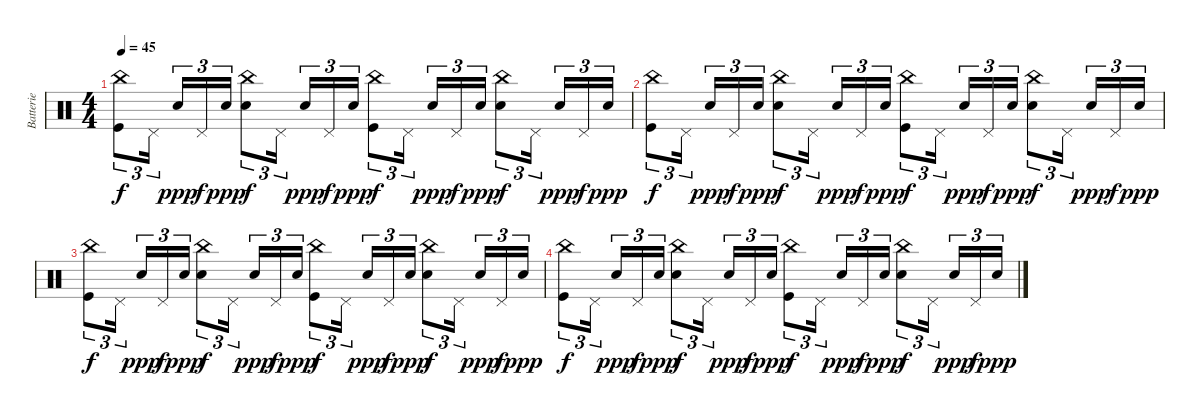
\track ("Batterie" "Batterie") {instrument percussion}
\staff {score}
\articulation defaults
\ts (4 4)
\tempo 45
\clef neutral
\ks c
("China (hit)" "Kick (hit)").8{tu (3 2) dy f} "Pedal Hi-Hat (hit)".16{tu (3 2)} "Electric Snare (hit)".16{tu (3 2) dy ppp} "Pedal Hi-Hat (hit)".16{tu (3 2) dy f} "Electric Snare (hit)".16{tu (3 2) dy ppp} ("China (hit)" "Electric Snare (hit)").8{tu (3 2) dy f} "Pedal Hi-Hat (hit)".16{tu (3 2)} "Electric Snare (hit)".16{tu (3 2) dy ppp} "Pedal Hi-Hat (hit)".16{tu (3 2) dy f} "Electric Snare (hit)".16{tu (3 2) dy ppp} ("China (hit)" "Kick (hit)").8{tu (3 2) dy f} "Pedal Hi-Hat (hit)".16{tu (3 2)} "Electric Snare (hit)".16{tu (3 2) dy ppp} "Pedal Hi-Hat (hit)".16{tu (3 2) dy f} "Electric Snare (hit)".16{tu (3 2) dy ppp} ("China (hit)" "Electric Snare (hit)").8{tu (3 2) dy f} "Pedal Hi-Hat (hit)".16{tu (3 2)} "Electric Snare (hit)".16{tu (3 2) dy ppp} "Pedal Hi-Hat (hit)".16{tu (3 2) dy f} "Electric Snare (hit)".16{tu (3 2) dy ppp} |
("China (hit)" "Kick (hit)").8{tu (3 2) dy f} "Pedal Hi-Hat (hit)".16{tu (3 2)} "Electric Snare (hit)".16{tu (3 2) dy ppp} "Pedal Hi-Hat (hit)".16{tu (3 2) dy f} "Electric Snare (hit)".16{tu (3 2) dy ppp} ("China (hit)" "Electric Snare (hit)").8{tu (3 2) dy f} "Pedal Hi-Hat (hit)".16{tu (3 2)} "Electric Snare (hit)".16{tu (3 2) dy ppp} "Pedal Hi-Hat (hit)".16{tu (3 2) dy f} "Electric Snare (hit)".16{tu (3 2) dy ppp} ("China (hit)" "Kick (hit)").8{tu (3 2) dy f} "Pedal Hi-Hat (hit)".16{tu (3 2)} "Electric Snare (hit)".16{tu (3 2) dy ppp} "Pedal Hi-Hat (hit)".16{tu (3 2) dy f} "Electric Snare (hit)".16{tu (3 2) dy ppp} ("China (hit)" "Electric Snare (hit)").8{tu (3 2) dy f} "Pedal Hi-Hat (hit)".16{tu (3 2)} "Electric Snare (hit)".16{tu (3 2) dy ppp} "Pedal Hi-Hat (hit)".16{tu (3 2) dy f} "Electric Snare (hit)".16{tu (3 2) dy ppp} |
("China (hit)" "Kick (hit)").8{tu (3 2) dy f} "Pedal Hi-Hat (hit)".16{tu (3 2)} "Electric Snare (hit)".16{tu (3 2) dy ppp} "Pedal Hi-Hat (hit)".16{tu (3 2) dy f} "Electric Snare (hit)".16{tu (3 2) dy ppp} ("China (hit)" "Electric Snare (hit)").8{tu (3 2) dy f} "Pedal Hi-Hat (hit)".16{tu (3 2)} "Electric Snare (hit)".16{tu (3 2) dy ppp} "Pedal Hi-Hat (hit)".16{tu (3 2) dy f} "Electric Snare (hit)".16{tu (3 2) dy ppp} ("China (hit)" "Kick (hit)").8{tu (3 2) dy f} "Pedal Hi-Hat (hit)".16{tu (3 2)} "Electric Snare (hit)".16{tu (3 2) dy ppp} "Pedal Hi-Hat (hit)".16{tu (3 2) dy f} "Electric Snare (hit)".16{tu (3 2) dy ppp} ("China (hit)" "Electric Snare (hit)").8{tu (3 2) dy f} "Pedal Hi-Hat (hit)".16{tu (3 2)} "Electric Snare (hit)".16{tu (3 2) dy ppp} "Pedal Hi-Hat (hit)".16{tu (3 2) dy f} "Electric Snare (hit)".16{tu (3 2) dy ppp} |
("China (hit)" "Kick (hit)").8{tu (3 2) dy f} "Pedal Hi-Hat (hit)".16{tu (3 2)} "Electric Snare (hit)".16{tu (3 2) dy ppp} "Pedal Hi-Hat (hit)".16{tu (3 2) dy f} "Electric Snare (hit)".16{tu (3 2) dy ppp} ("China (hit)" "Electric Snare (hit)").8{tu (3 2) dy f} "Pedal Hi-Hat (hit)".16{tu (3 2)} "Electric Snare (hit)".16{tu (3 2) dy ppp} "Pedal Hi-Hat (hit)".16{tu (3 2) dy f} "Electric Snare (hit)".16{tu (3 2) dy ppp} ("China (hit)" "Kick (hit)").8{tu (3 2) dy f} "Pedal Hi-Hat (hit)".16{tu (3 2)} "Electric Snare (hit)".16{tu (3 2) dy ppp} "Pedal Hi-Hat (hit)".16{tu (3 2) dy f} "Electric Snare (hit)".16{tu (3 2) dy ppp} ("China (hit)" "Electric Snare (hit)").8{tu (3 2) dy f} "Pedal Hi-Hat (hit)".16{tu (3 2)} "Electric Snare (hit)".16{tu (3 2) dy ppp} "Pedal Hi-Hat (hit)".16{tu (3 2) dy f} "Electric Snare (hit)".16{tu (3 2) dy ppp}
